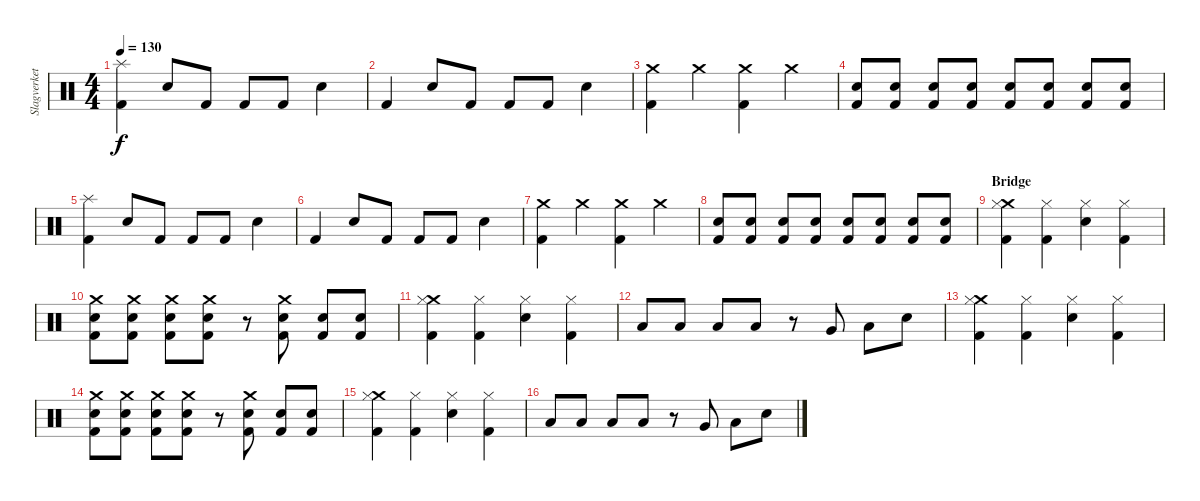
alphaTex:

\track ("Slagverket !!" "Slagverket") {instrument percussion}
\staff {score}
\articulation defaults
\ts (4 4)
\tempo 130
\clef neutral
\ks c
("Splash (hit)" "Kick (hit) 2").4{dy f} "Snare (hit) 2".8 "Kick (hit) 2".8 "Kick (hit) 2".8 "Kick (hit) 2".8 "Snare (hit) 2".4 |
"Kick (hit) 2".4 "Snare (hit) 2".8 "Kick (hit) 2".8 "Kick (hit) 2".8 "Kick (hit) 2".8 "Snare (hit) 2".4 |
("Crash medium (hit)" "Kick (hit) 2").4 "Crash medium (hit)".4 ("Crash medium (hit)" "Kick (hit) 2").4 "Crash medium (hit)".4 |
("Snare (hit) 2" "Kick (hit) 2").8 ("Snare (hit) 2" "Kick (hit) 2").8 ("Snare (hit) 2" "Kick (hit) 2").8 ("Snare (hit) 2" "Kick (hit) 2").8 ("Snare (hit) 2" "Kick (hit) 2").8 ("Snare (hit) 2" "Kick (hit) 2").8 ("Snare (hit) 2" "Kick (hit) 2").8 ("Snare (hit) 2" "Kick (hit) 2").8 |
("Splash (hit)" "Kick (hit) 2").4 "Snare (hit) 2".8 "Kick (hit) 2".8 "Kick (hit) 2".8 "Kick (hit) 2".8 "Snare (hit) 2".4 |
"Kick (hit) 2".4 "Snare (hit) 2".8 "Kick (hit) 2".8 "Kick (hit) 2".8 "Kick (hit) 2".8 "Snare (hit) 2".4 |
("Crash medium (hit)" "Kick (hit) 2").4 "Crash medium (hit)".4 ("Crash medium (hit)" "Kick (hit) 2").4 "Crash medium (hit)".4 |
("Snare (hit) 2" "Kick (hit) 2").8 ("Snare (hit) 2" "Kick (hit) 2").8 ("Snare (hit) 2" "Kick (hit) 2").8 ("Snare (hit) 2" "Kick (hit) 2").8 ("Snare (hit) 2" "Kick (hit) 2").8 ("Snare (hit) 2" "Kick (hit) 2").8 ("Snare (hit) 2" "Kick (hit) 2").8 ("Snare (hit) 2" "Kick (hit) 2").8 |
\section ("" "Bridge")
("Crash medium (hit)" "Hi-Hat (closed)" "Kick (hit) 2").4 ("Hi-Hat (closed)" "Kick (hit) 2").4 ("Electric Snare (hit)" "Hi-Hat (closed)").4 ("Hi-Hat (closed)" "Kick (hit) 2").4 |
("Crash medium (hit)" "Kick (hit) 2" "Snare (hit) 2").8 ("Crash medium (hit)" "Kick (hit) 2" "Snare (hit) 2").8 ("Crash medium (hit)" "Kick (hit) 2" "Snare (hit) 2").8 ("Crash medium (hit)" "Kick (hit) 2" "Snare (hit) 2").8 r.8 ("Crash medium (hit)" "Kick (hit) 2" "Snare (hit) 2").8 ("Kick (hit) 2" "Snare (hit) 2").8 ("Kick (hit) 2" "Snare (hit) 2").8 |
("Crash medium (hit)" "Hi-Hat (closed)" "Kick (hit) 2").4 ("Hi-Hat (closed)" "Kick (hit) 2").4 ("Electric Snare (hit)" "Hi-Hat (closed)").4 ("Hi-Hat (closed)" "Kick (hit) 2").4 |
"Low Tom (hit)".8 "Low Tom (hit)".8 "Low Tom (hit)".8 "Low Tom (hit)".8 r.8 "Very Low Tom (hit)".8 "Low Floor Tom (hit)".8 "Electric Snare (hit)".8 |
("Crash medium (hit)" "Hi-Hat (closed)" "Kick (hit) 2").4 ("Hi-Hat (closed)" "Kick (hit) 2").4 ("Electric Snare (hit)" "Hi-Hat (closed)").4 ("Hi-Hat (closed)" "Kick (hit) 2").4 |
("Crash medium (hit)" "Kick (hit) 2" "Snare (hit) 2").8 ("Crash medium (hit)" "Kick (hit) 2" "Snare (hit) 2").8 ("Crash medium (hit)" "Kick (hit) 2" "Snare (hit) 2").8 ("Crash medium (hit)" "Kick (hit) 2" "Snare (hit) 2").8 r.8 ("Crash medium (hit)" "Kick (hit) 2" "Snare (hit) 2").8 ("Kick (hit) 2" "Snare (hit) 2").8 ("Kick (hit) 2" "Snare (hit) 2").8 |
("Crash medium (hit)" "Hi-Hat (closed)" "Kick (hit) 2").4 ("Hi-Hat (closed)" "Kick (hit) 2").4 ("Electric Snare (hit)" "Hi-Hat (closed)").4 ("Hi-Hat (closed)" "Kick (hit) 2").4 |
"Low Tom (hit)".8 "Low Tom (hit)".8 "Low Tom (hit)".8 "Low Tom (hit)".8 r.8 "Very Low Tom (hit)".8 "Low Floor Tom (hit)".8 "Electric Snare (hit)".8
